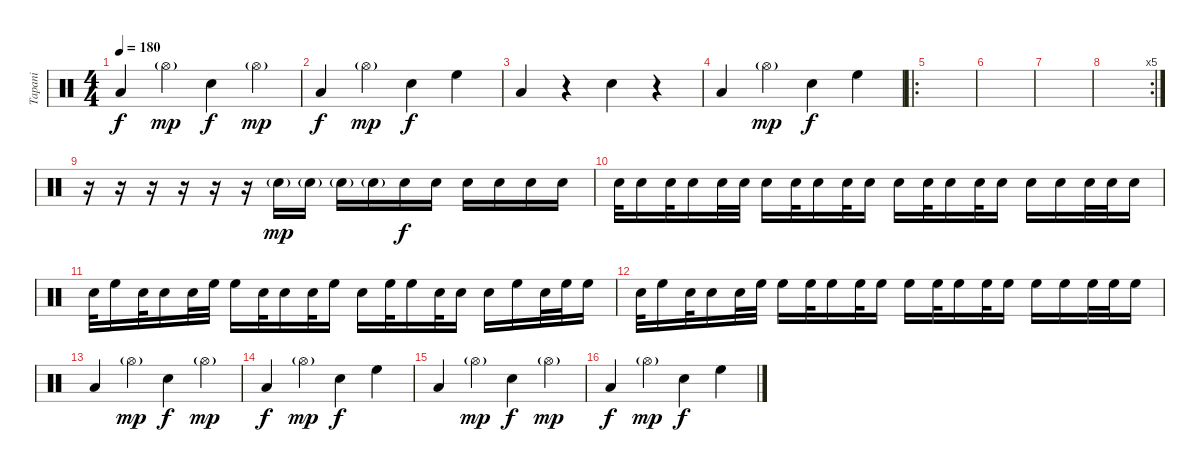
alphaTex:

\track ("Tapani" "Tapani") {instrument percussion}
\staff {score}
\articulation defaults
\ts (4 4)
\tempo 180
\clef neutral
\ks c "Low Tom (hit)".4{dy f} "Hi-Hat (open)"{g}.4{dy mp} "Electric Snare (hit)".4{dy f} "Hi-Hat (open)"{g}.4{dy mp}
|
"Low Tom (hit)".4{dy f} "Hi-Hat (open)"{g}.4{dy mp} "Electric Snare (hit)".4{dy f} "High Floor Tom (hit)".4 |
"Low Tom (hit)".4 r.4 "Electric Snare (hit)".4 r.4 |
"Low Tom (hit)".4 "Hi-Hat (open)"{g}.4{dy mp} "Electric Snare (hit)".4{dy f} "High Floor Tom (hit)".4 |
\ro
|
|
|
\rc 5
|
r.16 r.16 r.16 r.16 r.16 r.16 "Electric Snare (hit)"{g}.16{dy mp} "Electric Snare (hit)"{g}.16 "Electric Snare (hit)"{g}.16 "Electric Snare (hit)"{g}.16 "Electric Snare (hit)".16{dy f} "Electric Snare (hit)".16 "Electric Snare (hit)".16 "Electric Snare (hit)".16 "Electric Snare (hit)".16 "Electric Snare (hit)".16 |
"Electric Snare (hit)".32 "Electric Snare (hit)".16 "Electric Snare (hit)".32 "Electric Snare (hit)".16 "Electric Snare (hit)".32 "Electric Snare (hit)".32 "Electric Snare (hit)".16 "Electric Snare (hit)".32 "Electric Snare (hit)".16 "Electric Snare (hit)".32 "Electric Snare (hit)".16 "Electric Snare (hit)".16 "Electric Snare (hit)".32 "Electric Snare (hit)".16 "Electric Snare (hit)".32 "Electric Snare (hit)".16 "Electric Snare (hit)".16 "Electric Snare (hit)".16 "Electric Snare (hit)".32 "Electric Snare (hit)".32 "Electric Snare (hit)".16 |
"Electric Snare (hit)".32 "High Floor Tom (hit)".16 "Electric Snare (hit)".32 "Electric Snare (hit)".16 "Electric Snare (hit)".32 "High Floor Tom (hit)".32 "High Floor Tom (hit)".16 "Electric Snare (hit)".32 "Electric Snare (hit)".16 "Electric Snare (hit)".32 "High Floor Tom (hit)".16 "Electric Snare (hit)".16 "High Floor Tom (hit)".32 "High Floor Tom (hit)".16 "Electric Snare (hit)".32 "Electric Snare (hit)".16 "Electric Snare (hit)".16 "High Floor Tom (hit)".16 "Electric Snare (hit)".32 "High Floor Tom (hit)".32 "High Floor Tom (hit)".16 |
"Electric Snare (hit)".32 "High Floor Tom (hit)".16 "Electric Snare (hit)".32 "Electric Snare (hit)".16 "Electric Snare (hit)".32 "High Floor Tom (hit)".32 "High Floor Tom (hit)".16 "High Floor Tom (hit)".32 "High Floor Tom (hit)".16 "High Floor Tom (hit)".32 "High Floor Tom (hit)".16 "High Floor Tom (hit)".16 "High Floor Tom (hit)".32 "High Floor Tom (hit)".16 "High Floor Tom (hit)".32 "High Floor Tom (hit)".16 "High Floor Tom (hit)".16 "High Floor Tom (hit)".16 "High Floor Tom (hit)".32 "High Floor Tom (hit)".32 "High Floor Tom (hit)".16 |
"Low Tom (hit)".4 "Hi-Hat (open)"{g}.4{dy mp} "Electric Snare (hit)".4{dy f} "Hi-Hat (open)"{g}.4{dy mp} |
"Low Tom (hit)".4{dy f} "Hi-Hat (open)"{g}.4{dy mp} "Electric Snare (hit)".4{dy f} "High Floor Tom (hit)".4 |
"Low Tom (hit)".4 "Hi-Hat (open)"{g}.4{dy mp} "Electric Snare (hit)".4{dy f} "Hi-Hat (open)"{g}.4{dy mp} |
"Low Tom (hit)".4{dy f} "Hi-Hat (open)"{g}.4{dy mp} "Electric Snare (hit)".4{dy f} "High Floor Tom (hit)".4
